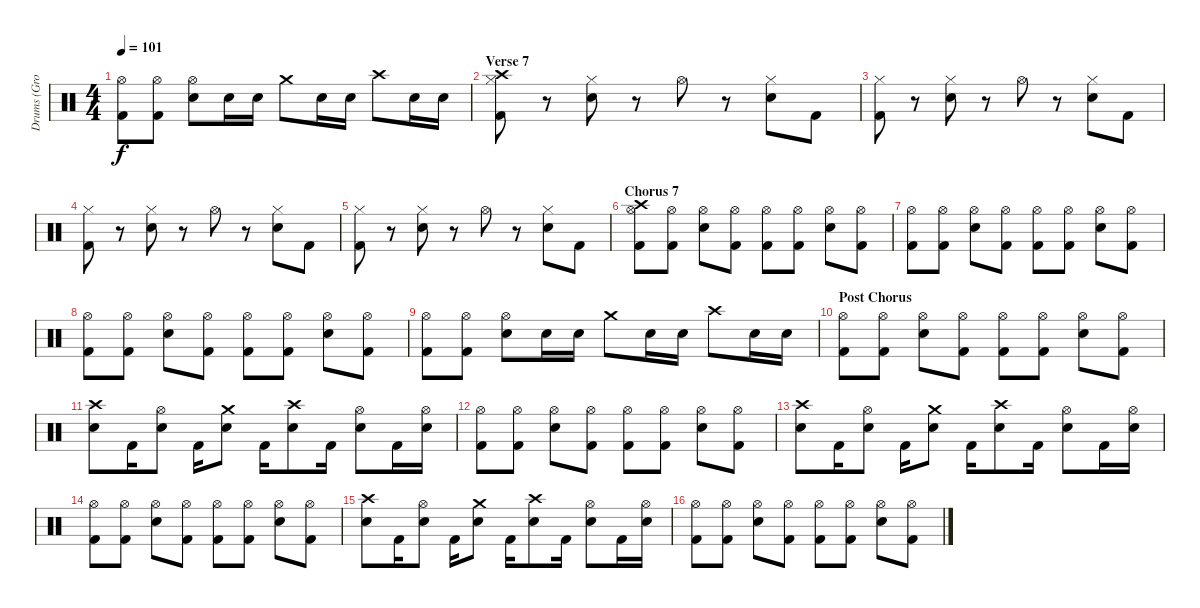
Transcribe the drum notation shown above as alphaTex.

\track ("Drums (Grohl)" "Drums (Gro") {instrument percussion}
\staff {score}
\articulation defaults
\ts (4 4)
\tempo 101
\clef neutral
\ks c
("Hi-Hat (open)" "Kick (hit) 2").8{dy f} ("Hi-Hat (open)" "Kick (hit) 2").8 ("Hi-Hat (open)" "Snare (hit) 2").8 "Snare (hit) 2".16 "Snare (hit) 2".16 "Crash medium (hit)".8 "Snare (hit) 2".16 "Snare (hit) 2".16 "Crash high (hit)".8 "Snare (hit) 2".16 "Snare (hit) 2".16 |
\section ("" "Verse 7")
("Hi-Hat (closed)" "Kick (hit) 2" "Crash high (hit)").8 r.8 ("Hi-Hat (closed)" "Snare (hit) 2").8 r.8 "Hi-Hat (open)".8 r.8 ("Hi-Hat (closed)" "Snare (hit) 2").8 "Kick (hit) 2".8 |
("Hi-Hat (closed)" "Kick (hit) 2").8 r.8 ("Hi-Hat (closed)" "Snare (hit) 2").8 r.8 "Hi-Hat (open)".8 r.8 ("Hi-Hat (closed)" "Snare (hit) 2").8 "Kick (hit) 2".8 |
("Hi-Hat (closed)" "Kick (hit) 2").8 r.8 ("Hi-Hat (closed)" "Snare (hit) 2").8 r.8 "Hi-Hat (open)".8 r.8 ("Hi-Hat (closed)" "Snare (hit) 2").8 "Kick (hit) 2".8 |
("Hi-Hat (closed)" "Kick (hit) 2").8 r.8 ("Hi-Hat (closed)" "Snare (hit) 2").8 r.8 "Hi-Hat (open)".8 r.8 ("Hi-Hat (closed)" "Snare (hit) 2").8 "Kick (hit) 2".8 |
\section ("" "Chorus 7")
("Hi-Hat (open)" "Kick (hit) 2" "Crash high (hit)").8 ("Hi-Hat (open)" "Kick (hit) 2").8 ("Hi-Hat (open)" "Snare (hit) 2").8 ("Hi-Hat (open)" "Kick (hit) 2").8 ("Hi-Hat (open)" "Kick (hit) 2").8 ("Hi-Hat (open)" "Kick (hit) 2").8 ("Hi-Hat (open)" "Snare (hit) 2").8 ("Hi-Hat (open)" "Kick (hit) 2").8 |
("Hi-Hat (open)" "Kick (hit) 2").8 ("Hi-Hat (open)" "Kick (hit) 2").8 ("Hi-Hat (open)" "Snare (hit) 2").8 ("Hi-Hat (open)" "Kick (hit) 2").8 ("Hi-Hat (open)" "Kick (hit) 2").8 ("Hi-Hat (open)" "Kick (hit) 2").8 ("Hi-Hat (open)" "Snare (hit) 2").8 ("Hi-Hat (open)" "Kick (hit) 2").8 |
("Hi-Hat (open)" "Kick (hit) 2").8 ("Hi-Hat (open)" "Kick (hit) 2").8 ("Hi-Hat (open)" "Snare (hit) 2").8 ("Hi-Hat (open)" "Kick (hit) 2").8 ("Hi-Hat (open)" "Kick (hit) 2").8 ("Hi-Hat (open)" "Kick (hit) 2").8 ("Hi-Hat (open)" "Snare (hit) 2").8 ("Hi-Hat (open)" "Kick (hit) 2").8 |
("Hi-Hat (open)" "Kick (hit) 2").8 ("Hi-Hat (open)" "Kick (hit) 2").8 ("Hi-Hat (open)" "Snare (hit) 2").8 "Snare (hit) 2".16 "Snare (hit) 2".16 "Crash medium (hit)".8 "Snare (hit) 2".16 "Snare (hit) 2".16 "Crash high (hit)".8 "Snare (hit) 2".16 "Snare (hit) 2".16 |
\section ("" "Post Chorus")
("Hi-Hat (open)" "Kick (hit) 2").8 ("Hi-Hat (open)" "Kick (hit) 2").8 ("Hi-Hat (open)" "Snare (hit) 2").8 ("Hi-Hat (open)" "Kick (hit) 2").8 ("Hi-Hat (open)" "Kick (hit) 2").8 ("Hi-Hat (open)" "Kick (hit) 2").8 ("Hi-Hat (open)" "Snare (hit) 2").8 ("Hi-Hat (open)" "Kick (hit) 2").8 |
("Snare (hit) 2" "Crash high (hit)").8 "Kick (hit) 2".16 ("Snare (hit) 2" "Hi-Hat (open)").8 "Kick (hit) 2".16 ("Snare (hit) 2" "Crash medium (hit)").8 "Kick (hit) 2".16 ("Snare (hit) 2" "Crash high (hit)").8 "Kick (hit) 2".16 ("Snare (hit) 2" "Hi-Hat (open)").8 "Kick (hit) 2".16 ("Snare (hit) 2" "Hi-Hat (open)").16 |
("Hi-Hat (open)" "Kick (hit) 2").8 ("Hi-Hat (open)" "Kick (hit) 2").8 ("Hi-Hat (open)" "Snare (hit) 2").8 ("Hi-Hat (open)" "Kick (hit) 2").8 ("Hi-Hat (open)" "Kick (hit) 2").8 ("Hi-Hat (open)" "Kick (hit) 2").8 ("Hi-Hat (open)" "Snare (hit) 2").8 ("Hi-Hat (open)" "Kick (hit) 2").8 |
("Snare (hit) 2" "Crash high (hit)").8 "Kick (hit) 2".16 ("Snare (hit) 2" "Hi-Hat (open)").8 "Kick (hit) 2".16 ("Snare (hit) 2" "Crash medium (hit)").8 "Kick (hit) 2".16 ("Snare (hit) 2" "Crash high (hit)").8 "Kick (hit) 2".16 ("Snare (hit) 2" "Hi-Hat (open)").8 "Kick (hit) 2".16 ("Snare (hit) 2" "Hi-Hat (open)").16 |
("Hi-Hat (open)" "Kick (hit) 2").8 ("Hi-Hat (open)" "Kick (hit) 2").8 ("Hi-Hat (open)" "Snare (hit) 2").8 ("Hi-Hat (open)" "Kick (hit) 2").8 ("Hi-Hat (open)" "Kick (hit) 2").8 ("Hi-Hat (open)" "Kick (hit) 2").8 ("Hi-Hat (open)" "Snare (hit) 2").8 ("Hi-Hat (open)" "Kick (hit) 2").8 |
("Snare (hit) 2" "Crash high (hit)").8 "Kick (hit) 2".16 ("Snare (hit) 2" "Hi-Hat (open)").8 "Kick (hit) 2".16 ("Snare (hit) 2" "Crash medium (hit)").8 "Kick (hit) 2".16 ("Snare (hit) 2" "Crash high (hit)").8 "Kick (hit) 2".16 ("Snare (hit) 2" "Hi-Hat (open)").8 "Kick (hit) 2".16 ("Snare (hit) 2" "Hi-Hat (open)").16 |
("Hi-Hat (open)" "Kick (hit) 2").8 ("Hi-Hat (open)" "Kick (hit) 2").8 ("Hi-Hat (open)" "Snare (hit) 2").8 ("Hi-Hat (open)" "Kick (hit) 2").8 ("Hi-Hat (open)" "Kick (hit) 2").8 ("Hi-Hat (open)" "Kick (hit) 2").8 ("Hi-Hat (open)" "Snare (hit) 2").8 ("Hi-Hat (open)" "Kick (hit) 2").8
